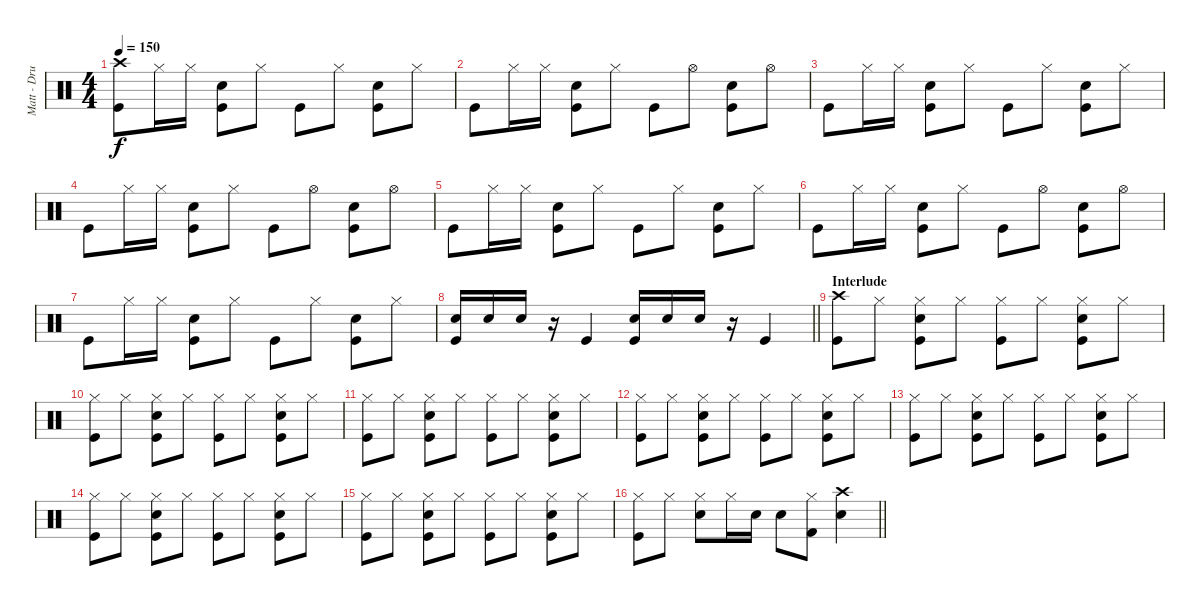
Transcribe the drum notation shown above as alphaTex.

\track ("Matt - Drums" "Matt - Dru") {instrument percussion}
\staff {score}
\articulation defaults
\ts (4 4)
\tempo 150
\clef neutral
\ks c
("Crash high (hit)" "Kick (hit)").8{dy f} "Hi-Hat (closed)".16 "Hi-Hat (closed)".16 ("Electric Snare (hit)" "Kick (hit)").8 "Hi-Hat (closed)".8 "Kick (hit)".8 "Hi-Hat (closed)".8 ("Electric Snare (hit)" "Kick (hit)").8 "Hi-Hat (closed)".8 |
"Kick (hit)".8 "Hi-Hat (closed)".16 "Hi-Hat (closed)".16 ("Electric Snare (hit)" "Kick (hit)").8 "Hi-Hat (closed)".8 "Kick (hit)".8 "Hi-Hat (open)".8 ("Electric Snare (hit)" "Kick (hit)").8 "Hi-Hat (open)".8 |
"Kick (hit)".8 "Hi-Hat (closed)".16 "Hi-Hat (closed)".16 ("Electric Snare (hit)" "Kick (hit)").8 "Hi-Hat (closed)".8 "Kick (hit)".8 "Hi-Hat (closed)".8 ("Electric Snare (hit)" "Kick (hit)").8 "Hi-Hat (closed)".8 |
"Kick (hit)".8 "Hi-Hat (closed)".16 "Hi-Hat (closed)".16 ("Electric Snare (hit)" "Kick (hit)").8 "Hi-Hat (closed)".8 "Kick (hit)".8 "Hi-Hat (open)".8 ("Electric Snare (hit)" "Kick (hit)").8 "Hi-Hat (open)".8 |
"Kick (hit)".8 "Hi-Hat (closed)".16 "Hi-Hat (closed)".16 ("Electric Snare (hit)" "Kick (hit)").8 "Hi-Hat (closed)".8 "Kick (hit)".8 "Hi-Hat (closed)".8 ("Electric Snare (hit)" "Kick (hit)").8 "Hi-Hat (closed)".8 |
"Kick (hit)".8 "Hi-Hat (closed)".16 "Hi-Hat (closed)".16 ("Electric Snare (hit)" "Kick (hit)").8 "Hi-Hat (closed)".8 "Kick (hit)".8 "Hi-Hat (open)".8 ("Electric Snare (hit)" "Kick (hit)").8 "Hi-Hat (open)".8 |
"Kick (hit)".8 "Hi-Hat (closed)".16 "Hi-Hat (closed)".16 ("Electric Snare (hit)" "Kick (hit)").8 "Hi-Hat (closed)".8 "Kick (hit)".8 "Hi-Hat (closed)".8 ("Electric Snare (hit)" "Kick (hit)").8 "Hi-Hat (closed)".8 |
\barLineRight lightlight
("Electric Snare (hit)" "Kick (hit)").16 "Electric Snare (hit)".16 "Electric Snare (hit)".16 r.16 "Kick (hit)".4 ("Electric Snare (hit)" "Kick (hit)").16 "Electric Snare (hit)".16 "Electric Snare (hit)".16 r.16 "Kick (hit)".4 |
\section ("" "Interlude")
("Crash high (hit)" "Kick (hit)").8 "Hi-Hat (closed)".8 ("Hi-Hat (closed)" "Electric Snare (hit)" "Kick (hit)").8 "Hi-Hat (closed)".8 ("Hi-Hat (closed)" "Kick (hit)").8 "Hi-Hat (closed)".8 ("Hi-Hat (closed)" "Electric Snare (hit)" "Kick (hit)").8 "Hi-Hat (closed)".8 |
("Hi-Hat (closed)" "Kick (hit)").8 "Hi-Hat (closed)".8 ("Hi-Hat (closed)" "Electric Snare (hit)" "Kick (hit)").8 "Hi-Hat (closed)".8 ("Hi-Hat (closed)" "Kick (hit)").8 "Hi-Hat (closed)".8 ("Hi-Hat (closed)" "Electric Snare (hit)" "Kick (hit)").8 "Hi-Hat (closed)".8 |
("Hi-Hat (closed)" "Kick (hit)").8 "Hi-Hat (closed)".8 ("Hi-Hat (closed)" "Electric Snare (hit)" "Kick (hit)").8 "Hi-Hat (closed)".8 ("Hi-Hat (closed)" "Kick (hit)").8 "Hi-Hat (closed)".8 ("Hi-Hat (closed)" "Electric Snare (hit)" "Kick (hit)").8 "Hi-Hat (closed)".8 |
("Hi-Hat (closed)" "Kick (hit)").8 "Hi-Hat (closed)".8 ("Hi-Hat (closed)" "Electric Snare (hit)" "Kick (hit)").8 "Hi-Hat (closed)".8 ("Hi-Hat (closed)" "Kick (hit)").8 "Hi-Hat (closed)".8 ("Hi-Hat (closed)" "Electric Snare (hit)" "Kick (hit)").8 "Hi-Hat (closed)".8 |
("Hi-Hat (closed)" "Kick (hit)").8 "Hi-Hat (closed)".8 ("Hi-Hat (closed)" "Electric Snare (hit)" "Kick (hit)").8 "Hi-Hat (closed)".8 ("Hi-Hat (closed)" "Kick (hit)").8 "Hi-Hat (closed)".8 ("Hi-Hat (closed)" "Electric Snare (hit)" "Kick (hit)").8 "Hi-Hat (closed)".8 |
("Hi-Hat (closed)" "Kick (hit)").8 "Hi-Hat (closed)".8 ("Hi-Hat (closed)" "Electric Snare (hit)" "Kick (hit)").8 "Hi-Hat (closed)".8 ("Hi-Hat (closed)" "Kick (hit)").8 "Hi-Hat (closed)".8 ("Hi-Hat (closed)" "Electric Snare (hit)" "Kick (hit)").8 "Hi-Hat (closed)".8 |
("Hi-Hat (closed)" "Kick (hit)").8 "Hi-Hat (closed)".8 ("Hi-Hat (closed)" "Electric Snare (hit)" "Kick (hit)").8 "Hi-Hat (closed)".8 ("Hi-Hat (closed)" "Kick (hit)").8 "Hi-Hat (closed)".8 ("Hi-Hat (closed)" "Electric Snare (hit)" "Kick (hit)").8 "Hi-Hat (closed)".8 |
\barLineRight lightlight
("Hi-Hat (closed)" "Kick (hit)").8 "Hi-Hat (closed)".8 ("Hi-Hat (closed)" "Electric Snare (hit)").8 "Hi-Hat (closed)".16 "Electric Snare (hit)".16 "Electric Snare (hit)".8 ("Hi-Hat (closed)" "Kick (hit) 2").8 ("Crash high (hit)" "Electric Snare (hit)").4
